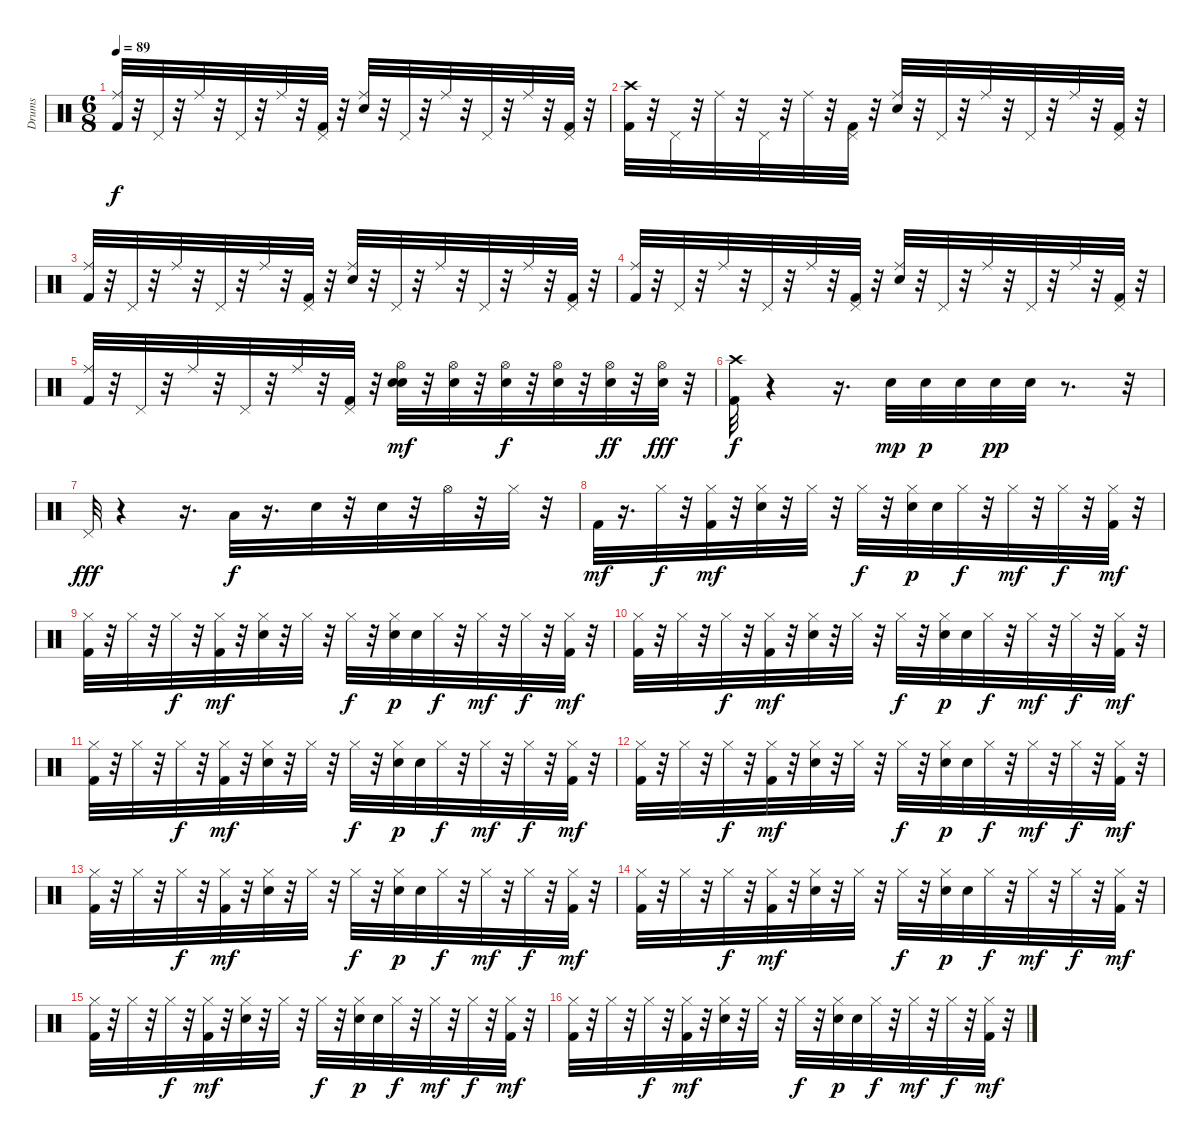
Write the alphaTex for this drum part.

\track ("Drums" "Drums") {instrument percussion}
\staff {score}
\articulation defaults
\ts (6 8)
\tempo 89
\clef neutral
\ks c
("Ride (middle)" "Kick (hit) 2").32{dy f} r.32 "Pedal Hi-Hat (hit)".32 r.32 "Ride (middle)".32 r.32 "Pedal Hi-Hat (hit)".32 r.32 "Ride (middle)".32 r.32 ("Kick (hit) 2" "Pedal Hi-Hat (hit)").32 r.32 ("Snare (hit) 2" "Ride (middle)").32 r.32 "Pedal Hi-Hat (hit)".32 r.32 "Ride (middle)".32 r.32 "Pedal Hi-Hat (hit)".32 r.32 "Ride (middle)".32 r.32 ("Kick (hit) 2" "Pedal Hi-Hat (hit)").32 r.32 |
("Kick (hit) 2" "Crash high (hit)").32 r.32 "Pedal Hi-Hat (hit)".32 r.32 "Ride (middle)".32 r.32 "Pedal Hi-Hat (hit)".32 r.32 "Ride (middle)".32 r.32 ("Pedal Hi-Hat (hit)" "Kick (hit) 2").32 r.32 ("Ride (middle)" "Snare (hit) 2").32 r.32 "Pedal Hi-Hat (hit)".32 r.32 "Ride (middle)".32 r.32 "Pedal Hi-Hat (hit)".32 r.32 "Ride (middle)".32 r.32 ("Pedal Hi-Hat (hit)" "Kick (hit) 2").32 r.32 |
("Ride (middle)" "Kick (hit) 2").32 r.32 "Pedal Hi-Hat (hit)".32 r.32 "Ride (middle)".32 r.32 "Pedal Hi-Hat (hit)".32 r.32 "Ride (middle)".32 r.32 ("Kick (hit) 2" "Pedal Hi-Hat (hit)").32 r.32 ("Snare (hit) 2" "Ride (middle)").32 r.32 "Pedal Hi-Hat (hit)".32 r.32 "Ride (middle)".32 r.32 "Pedal Hi-Hat (hit)".32 r.32 "Ride (middle)".32 r.32 ("Kick (hit) 2" "Pedal Hi-Hat (hit)").32 r.32 |
("Ride (middle)" "Kick (hit) 2").32 r.32 "Pedal Hi-Hat (hit)".32 r.32 "Ride (middle)".32 r.32 "Pedal Hi-Hat (hit)".32 r.32 "Ride (middle)".32 r.32 ("Kick (hit) 2" "Pedal Hi-Hat (hit)").32 r.32 ("Snare (hit) 2" "Ride (middle)").32 r.32 "Pedal Hi-Hat (hit)".32 r.32 "Ride (middle)".32 r.32 "Pedal Hi-Hat (hit)".32 r.32 "Ride (middle)".32 r.32 ("Kick (hit) 2" "Pedal Hi-Hat (hit)").32 r.32 |
("Ride (middle)" "Kick (hit) 2").32 r.32 "Pedal Hi-Hat (hit)".32 r.32 "Ride (middle)".32 r.32 "Pedal Hi-Hat (hit)".32 r.32 "Ride (middle)".32 r.32 ("Kick (hit) 2" "Pedal Hi-Hat (hit)").32 r.32 ("Snare (hit) 2" "Snare (hit) 2" "Hi-Hat (open)").32{dy mf} r.32 ("Hi-Hat (open)" "Snare (hit) 2").32 r.32 ("Snare (hit) 2" "Hi-Hat (open)").32{dy f} r.32 ("Hi-Hat (open)" "Snare (hit) 2").32 r.32 ("Hi-Hat (open)" "Snare (hit) 2").32{dy ff} r.32 ("Snare (hit) 2" "Hi-Hat (open)").32{dy fff} r.32 |
("Crash high (hit)" "Kick (hit) 2").32{dy f} r.4 r.16{d} "Snare (hit) 2".32{dy mp} "Snare (hit) 2".32{dy p} "Snare (hit) 2".32 "Snare (hit) 2".32{dy pp} "Snare (hit) 2".32 r.8{d} r.32 |
"Pedal Hi-Hat (hit)".32{dy fff} r.4 r.16{d} "Low Tom (hit)".32{dy f} r.16{d} "Snare (hit) 2".32 r.32 "Snare (hit) 2".32 r.32 "Hi-Hat (open)".32 r.32 "Hi-Hat (closed)".32 r.32 |
"Kick (hit) 2".32{dy mf} r.16{d} "Hi-Hat (closed)".32{dy f} r.32 ("Hi-Hat (closed)" "Kick (hit) 2").32{dy mf} r.32 ("Snare (hit) 2" "Hi-Hat (closed)").32 r.32 "Hi-Hat (closed)".32 r.32 "Hi-Hat (closed)".32{dy f} r.32 ("Hi-Hat (closed)" "Snare (hit) 2").32{dy p} "Snare (hit) 2".32 "Hi-Hat (closed)".32{dy f} r.32 "Hi-Hat (closed)".32{dy mf} r.32 "Hi-Hat (closed)".32{dy f} r.32 ("Hi-Hat (closed)" "Kick (hit) 2").32{dy mf} r.32 |
("Hi-Hat (closed)" "Kick (hit) 2").32 r.32 "Hi-Hat (closed)".32 r.32 "Hi-Hat (closed)".32{dy f} r.32 ("Hi-Hat (closed)" "Kick (hit) 2").32{dy mf} r.32 ("Snare (hit) 2" "Hi-Hat (closed)").32 r.32 "Hi-Hat (closed)".32 r.32 "Hi-Hat (closed)".32{dy f} r.32 ("Hi-Hat (closed)" "Snare (hit) 2").32{dy p} "Snare (hit) 2".32 "Hi-Hat (closed)".32{dy f} r.32 "Hi-Hat (closed)".32{dy mf} r.32 "Hi-Hat (closed)".32{dy f} r.32 ("Hi-Hat (closed)" "Kick (hit) 2").32{dy mf} r.32 |
("Hi-Hat (closed)" "Kick (hit) 2").32 r.32 "Hi-Hat (closed)".32 r.32 "Hi-Hat (closed)".32{dy f} r.32 ("Hi-Hat (closed)" "Kick (hit) 2").32{dy mf} r.32 ("Snare (hit) 2" "Hi-Hat (closed)").32 r.32 "Hi-Hat (closed)".32 r.32 "Hi-Hat (closed)".32{dy f} r.32 ("Hi-Hat (closed)" "Snare (hit) 2").32{dy p} "Snare (hit) 2".32 "Hi-Hat (closed)".32{dy f} r.32 "Hi-Hat (closed)".32{dy mf} r.32 "Hi-Hat (closed)".32{dy f} r.32 ("Hi-Hat (closed)" "Kick (hit) 2").32{dy mf} r.32 |
("Hi-Hat (closed)" "Kick (hit) 2").32 r.32 "Hi-Hat (closed)".32 r.32 "Hi-Hat (closed)".32{dy f} r.32 ("Hi-Hat (closed)" "Kick (hit) 2").32{dy mf} r.32 ("Snare (hit) 2" "Hi-Hat (closed)").32 r.32 "Hi-Hat (closed)".32 r.32 "Hi-Hat (closed)".32{dy f} r.32 ("Hi-Hat (closed)" "Snare (hit) 2").32{dy p} "Snare (hit) 2".32 "Hi-Hat (closed)".32{dy f} r.32 "Hi-Hat (closed)".32{dy mf} r.32 "Hi-Hat (closed)".32{dy f} r.32 ("Hi-Hat (closed)" "Kick (hit) 2").32{dy mf} r.32 |
("Hi-Hat (closed)" "Kick (hit) 2").32 r.32 "Hi-Hat (closed)".32 r.32 "Hi-Hat (closed)".32{dy f} r.32 ("Hi-Hat (closed)" "Kick (hit) 2").32{dy mf} r.32 ("Snare (hit) 2" "Hi-Hat (closed)").32 r.32 "Hi-Hat (closed)".32 r.32 "Hi-Hat (closed)".32{dy f} r.32 ("Hi-Hat (closed)" "Snare (hit) 2").32{dy p} "Snare (hit) 2".32 "Hi-Hat (closed)".32{dy f} r.32 "Hi-Hat (closed)".32{dy mf} r.32 "Hi-Hat (closed)".32{dy f} r.32 ("Hi-Hat (closed)" "Kick (hit) 2").32{dy mf} r.32 |
("Hi-Hat (closed)" "Kick (hit) 2").32 r.32 "Hi-Hat (closed)".32 r.32 "Hi-Hat (closed)".32{dy f} r.32 ("Hi-Hat (closed)" "Kick (hit) 2").32{dy mf} r.32 ("Snare (hit) 2" "Hi-Hat (closed)").32 r.32 "Hi-Hat (closed)".32 r.32 "Hi-Hat (closed)".32{dy f} r.32 ("Hi-Hat (closed)" "Snare (hit) 2").32{dy p} "Snare (hit) 2".32 "Hi-Hat (closed)".32{dy f} r.32 "Hi-Hat (closed)".32{dy mf} r.32 "Hi-Hat (closed)".32{dy f} r.32 ("Hi-Hat (closed)" "Kick (hit) 2").32{dy mf} r.32 |
("Hi-Hat (closed)" "Kick (hit) 2").32 r.32 "Hi-Hat (closed)".32 r.32 "Hi-Hat (closed)".32{dy f} r.32 ("Hi-Hat (closed)" "Kick (hit) 2").32{dy mf} r.32 ("Snare (hit) 2" "Hi-Hat (closed)").32 r.32 "Hi-Hat (closed)".32 r.32 "Hi-Hat (closed)".32{dy f} r.32 ("Hi-Hat (closed)" "Snare (hit) 2").32{dy p} "Snare (hit) 2".32 "Hi-Hat (closed)".32{dy f} r.32 "Hi-Hat (closed)".32{dy mf} r.32 "Hi-Hat (closed)".32{dy f} r.32 ("Hi-Hat (closed)" "Kick (hit) 2").32{dy mf} r.32 |
("Hi-Hat (closed)" "Kick (hit) 2").32 r.32 "Hi-Hat (closed)".32 r.32 "Hi-Hat (closed)".32{dy f} r.32 ("Hi-Hat (closed)" "Kick (hit) 2").32{dy mf} r.32 ("Snare (hit) 2" "Hi-Hat (closed)").32 r.32 "Hi-Hat (closed)".32 r.32 "Hi-Hat (closed)".32{dy f} r.32 ("Hi-Hat (closed)" "Snare (hit) 2").32{dy p} "Snare (hit) 2".32 "Hi-Hat (closed)".32{dy f} r.32 "Hi-Hat (closed)".32{dy mf} r.32 "Hi-Hat (closed)".32{dy f} r.32 ("Hi-Hat (closed)" "Kick (hit) 2").32{dy mf} r.32 |
("Hi-Hat (closed)" "Kick (hit) 2").32 r.32 "Hi-Hat (closed)".32 r.32 "Hi-Hat (closed)".32{dy f} r.32 ("Hi-Hat (closed)" "Kick (hit) 2").32{dy mf} r.32 ("Snare (hit) 2" "Hi-Hat (closed)").32 r.32 "Hi-Hat (closed)".32 r.32 "Hi-Hat (closed)".32{dy f} r.32 ("Hi-Hat (closed)" "Snare (hit) 2").32{dy p} "Snare (hit) 2".32 "Hi-Hat (closed)".32{dy f} r.32 "Hi-Hat (closed)".32{dy mf} r.32 "Hi-Hat (closed)".32{dy f} r.32 ("Hi-Hat (closed)" "Kick (hit) 2").32{dy mf} r.32
